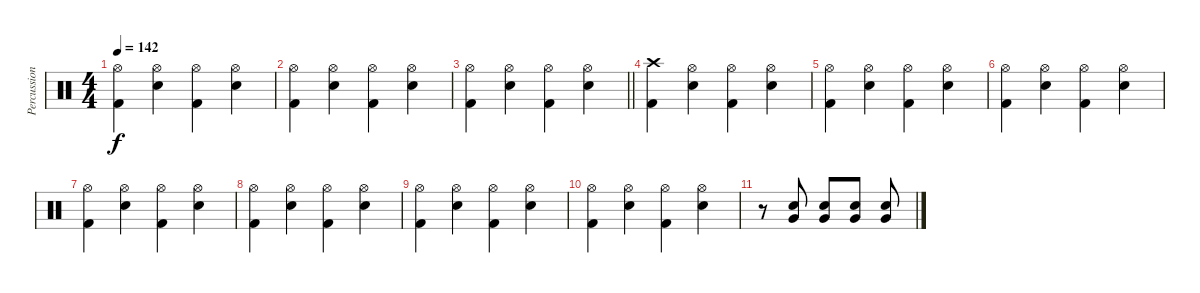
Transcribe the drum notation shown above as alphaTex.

\track ("Percussion" "Percussion") {instrument percussion}
\staff {score}
\articulation defaults
\ts (4 4)
\tempo 142
\clef neutral
\ks c
("Hi-Hat (open)" "Kick (hit) 2").4{dy f} ("Hi-Hat (open)" "Snare (hit) 2").4 ("Hi-Hat (open)" "Kick (hit) 2").4 ("Hi-Hat (open)" "Snare (hit) 2").4 |
("Hi-Hat (open)" "Kick (hit) 2").4 ("Hi-Hat (open)" "Snare (hit) 2").4 ("Hi-Hat (open)" "Kick (hit) 2").4 ("Hi-Hat (open)" "Snare (hit) 2").4 |
\barLineRight lightlight
("Hi-Hat (open)" "Kick (hit) 2").4 ("Hi-Hat (open)" "Snare (hit) 2").4 ("Hi-Hat (open)" "Kick (hit) 2").4 ("Hi-Hat (open)" "Snare (hit) 2").4 |
("Crash high (hit)" "Kick (hit) 2").4 ("Hi-Hat (open)" "Snare (hit) 2").4 ("Hi-Hat (open)" "Kick (hit) 2").4 ("Hi-Hat (open)" "Snare (hit) 2").4 |
("Hi-Hat (open)" "Kick (hit) 2").4 ("Hi-Hat (open)" "Snare (hit) 2").4 ("Hi-Hat (open)" "Kick (hit) 2").4 ("Hi-Hat (open)" "Snare (hit) 2").4 |
("Hi-Hat (open)" "Kick (hit) 2").4 ("Hi-Hat (open)" "Snare (hit) 2").4 ("Hi-Hat (open)" "Kick (hit) 2").4 ("Hi-Hat (open)" "Snare (hit) 2").4 |
("Hi-Hat (open)" "Kick (hit) 2").4 ("Hi-Hat (open)" "Snare (hit) 2").4 ("Hi-Hat (open)" "Kick (hit) 2").4 ("Hi-Hat (open)" "Snare (hit) 2").4 |
("Hi-Hat (open)" "Kick (hit) 2").4 ("Hi-Hat (open)" "Snare (hit) 2").4 ("Hi-Hat (open)" "Kick (hit) 2").4 ("Hi-Hat (open)" "Snare (hit) 2").4 |
("Hi-Hat (open)" "Kick (hit) 2").4 ("Hi-Hat (open)" "Snare (hit) 2").4 ("Hi-Hat (open)" "Kick (hit) 2").4 ("Hi-Hat (open)" "Snare (hit) 2").4 |
("Hi-Hat (open)" "Kick (hit) 2").4 ("Hi-Hat (open)" "Snare (hit) 2").4 ("Hi-Hat (open)" "Kick (hit) 2").4 ("Hi-Hat (open)" "Snare (hit) 2").4 |
r.8 ("Snare (hit) 2" "Very Low Tom (hit)").8 ("Snare (hit) 2" "Very Low Tom (hit)").8 ("Snare (hit) 2" "Very Low Tom (hit)").8 ("Snare (hit) 2" "Very Low Tom (hit)").8
